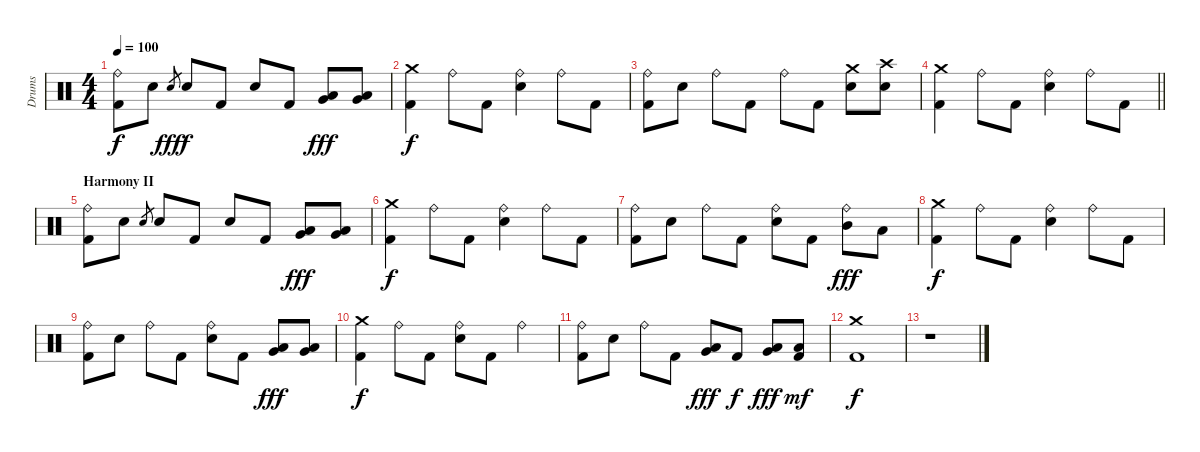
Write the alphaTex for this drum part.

\track ("Drums" "Drums") {instrument percussion}
\staff {score}
\articulation defaults
\ts (4 4)
\tempo 100
\clef neutral
\ks c
("Ride (bell)" "Kick (hit) 2").8{dy f} "Electric Snare (hit)".8 "Electric Snare (hit)".8{gr dy fff} "Electric Snare (hit)".8{dy f} "Kick (hit) 2".8 "Electric Snare (hit)".8 "Kick (hit) 2".8 ("Low Tom (hit)" "Very Low Tom (hit)").8{dy fff} ("Low Tom (hit)" "Very Low Tom (hit)").8 |
("Crash medium (hit)" "Kick (hit) 2").4{dy f} "Ride (bell)".8 "Kick (hit) 2".8 ("Ride (bell)" "Electric Snare (hit)").4 "Ride (bell)".8 "Kick (hit) 2".8 |
("Ride (bell)" "Kick (hit) 2").8 "Electric Snare (hit)".8 "Ride (bell)".8 "Kick (hit) 2".8 "Ride (bell)".8 "Kick (hit) 2".8 ("Crash medium (hit)" "Electric Snare (hit)").8 ("Crash high (hit)" "Electric Snare (hit)").8 |
\barLineRight lightlight
("Crash medium (hit)" "Kick (hit) 2").4 "Ride (bell)".8 "Kick (hit) 2".8 ("Ride (bell)" "Electric Snare (hit)").4 "Ride (bell)".8 "Kick (hit) 2".8 |
\section ("" "Harmony II")
("Ride (bell)" "Kick (hit) 2").8 "Electric Snare (hit)".8 "Electric Snare (hit)".8{gr} "Electric Snare (hit)".8 "Kick (hit) 2".8 "Electric Snare (hit)".8 "Kick (hit) 2".8 ("Low Tom (hit)" "Very Low Tom (hit)").8{dy fff} ("Low Tom (hit)" "Very Low Tom (hit)").8 |
("Crash medium (hit)" "Kick (hit) 2").4{dy f} "Ride (bell)".8 "Kick (hit) 2".8 ("Ride (bell)" "Electric Snare (hit)").4 "Ride (bell)".8 "Kick (hit) 2".8 |
("Ride (bell)" "Kick (hit) 2").8 "Electric Snare (hit)".8 "Ride (bell)".8 "Kick (hit) 2".8 ("Ride (bell)" "Electric Snare (hit)").8 "Kick (hit) 2".8 ("Ride (bell)" "Mid Tom (hit)").8{dy fff} "Low Tom (hit)".8 |
("Crash medium (hit)" "Kick (hit) 2").4{dy f} "Ride (bell)".8 "Kick (hit) 2".8 ("Ride (bell)" "Electric Snare (hit)").4 "Ride (bell)".8 "Kick (hit) 2".8 |
("Ride (bell)" "Kick (hit) 2").8 "Electric Snare (hit)".8 "Ride (bell)".8 "Kick (hit) 2".8 ("Ride (bell)" "Electric Snare (hit)").8 "Kick (hit) 2".8 ("Low Tom (hit)" "Very Low Tom (hit)").8{dy fff} ("Low Tom (hit)" "Very Low Tom (hit)").8 |
("Crash medium (hit)" "Kick (hit) 2").4{dy f} "Ride (bell)".8 "Kick (hit) 2".8 ("Ride (bell)" "Electric Snare (hit)").8 "Kick (hit) 2".8 "Ride (bell)".4 |
("Ride (bell)" "Kick (hit) 2").8 "Electric Snare (hit)".8 "Ride (bell)".8 "Kick (hit) 2".8 ("Low Tom (hit)" "Very Low Tom (hit)").8{dy fff} "Kick (hit) 2".8{dy f} ("Very Low Tom (hit)" "Low Floor Tom (hit)").8{dy fff} ("Low Floor Tom (hit)" "Kick (hit) 2").8{dy mf} |
("Crash medium (hit)" "Kick (hit) 2").1{dy f} |
r.1
